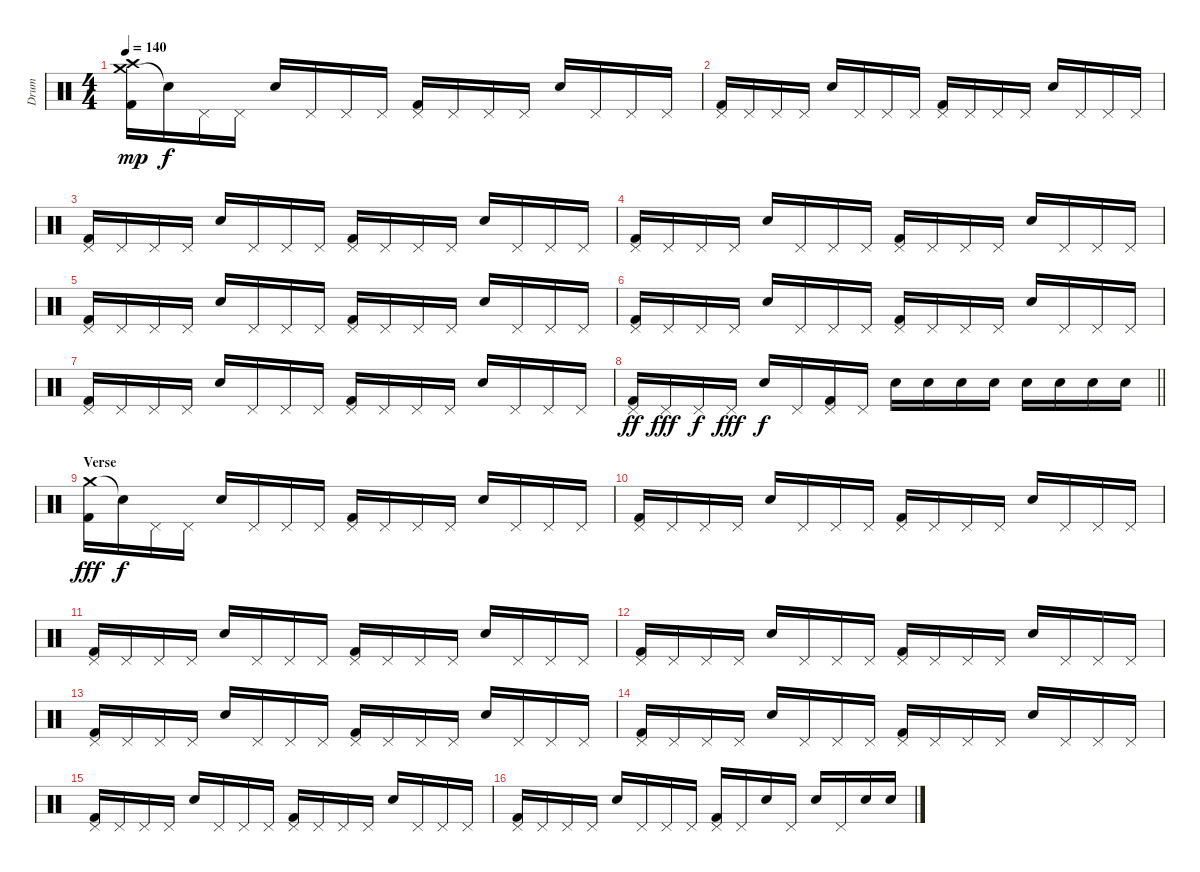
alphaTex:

\track ("Drum" "Drum") {instrument percussion}
\staff {score}
\articulation defaults
\ts (4 4)
\tempo 140
\clef neutral
\ks c
("Crash medium (hit)" "Crash high (hit)" "Kick (hit) 2").16{dy mp} "Snare (hit)"{t}.16{dy f} "Pedal Hi-Hat (hit)".16 "Pedal Hi-Hat (hit)".16 "Snare (hit) 2".16 "Pedal Hi-Hat (hit)".16 "Pedal Hi-Hat (hit)".16 "Pedal Hi-Hat (hit)".16 ("Pedal Hi-Hat (hit)" "Kick (hit) 2").16 "Pedal Hi-Hat (hit)".16 "Pedal Hi-Hat (hit)".16 "Pedal Hi-Hat (hit)".16 "Snare (hit) 2".16 "Pedal Hi-Hat (hit)".16 "Pedal Hi-Hat (hit)".16 "Pedal Hi-Hat (hit)".16 |
("Pedal Hi-Hat (hit)" "Kick (hit) 2").16 "Pedal Hi-Hat (hit)".16 "Pedal Hi-Hat (hit)".16 "Pedal Hi-Hat (hit)".16 "Snare (hit) 2".16 "Pedal Hi-Hat (hit)".16 "Pedal Hi-Hat (hit)".16 "Pedal Hi-Hat (hit)".16 ("Pedal Hi-Hat (hit)" "Kick (hit) 2").16 "Pedal Hi-Hat (hit)".16 "Pedal Hi-Hat (hit)".16 "Pedal Hi-Hat (hit)".16 "Snare (hit) 2".16 "Pedal Hi-Hat (hit)".16 "Pedal Hi-Hat (hit)".16 "Pedal Hi-Hat (hit)".16 |
("Pedal Hi-Hat (hit)" "Kick (hit) 2").16 "Pedal Hi-Hat (hit)".16 "Pedal Hi-Hat (hit)".16 "Pedal Hi-Hat (hit)".16 "Snare (hit) 2".16 "Pedal Hi-Hat (hit)".16 "Pedal Hi-Hat (hit)".16 "Pedal Hi-Hat (hit)".16 ("Pedal Hi-Hat (hit)" "Kick (hit) 2").16 "Pedal Hi-Hat (hit)".16 "Pedal Hi-Hat (hit)".16 "Pedal Hi-Hat (hit)".16 "Snare (hit) 2".16 "Pedal Hi-Hat (hit)".16 "Pedal Hi-Hat (hit)".16 "Pedal Hi-Hat (hit)".16 |
("Pedal Hi-Hat (hit)" "Kick (hit) 2").16 "Pedal Hi-Hat (hit)".16 "Pedal Hi-Hat (hit)".16 "Pedal Hi-Hat (hit)".16 "Snare (hit) 2".16 "Pedal Hi-Hat (hit)".16 "Pedal Hi-Hat (hit)".16 "Pedal Hi-Hat (hit)".16 ("Pedal Hi-Hat (hit)" "Kick (hit) 2").16 "Pedal Hi-Hat (hit)".16 "Pedal Hi-Hat (hit)".16 "Pedal Hi-Hat (hit)".16 "Snare (hit) 2".16 "Pedal Hi-Hat (hit)".16 "Pedal Hi-Hat (hit)".16 "Pedal Hi-Hat (hit)".16 |
("Pedal Hi-Hat (hit)" "Kick (hit) 2").16 "Pedal Hi-Hat (hit)".16 "Pedal Hi-Hat (hit)".16 "Pedal Hi-Hat (hit)".16 "Snare (hit) 2".16 "Pedal Hi-Hat (hit)".16 "Pedal Hi-Hat (hit)".16 "Pedal Hi-Hat (hit)".16 ("Pedal Hi-Hat (hit)" "Kick (hit) 2").16 "Pedal Hi-Hat (hit)".16 "Pedal Hi-Hat (hit)".16 "Pedal Hi-Hat (hit)".16 "Snare (hit) 2".16 "Pedal Hi-Hat (hit)".16 "Pedal Hi-Hat (hit)".16 "Pedal Hi-Hat (hit)".16 |
("Pedal Hi-Hat (hit)" "Kick (hit) 2").16 "Pedal Hi-Hat (hit)".16 "Pedal Hi-Hat (hit)".16 "Pedal Hi-Hat (hit)".16 "Snare (hit) 2".16 "Pedal Hi-Hat (hit)".16 "Pedal Hi-Hat (hit)".16 "Pedal Hi-Hat (hit)".16 ("Pedal Hi-Hat (hit)" "Kick (hit) 2").16 "Pedal Hi-Hat (hit)".16 "Pedal Hi-Hat (hit)".16 "Pedal Hi-Hat (hit)".16 "Snare (hit) 2".16 "Pedal Hi-Hat (hit)".16 "Pedal Hi-Hat (hit)".16 "Pedal Hi-Hat (hit)".16 |
("Pedal Hi-Hat (hit)" "Kick (hit) 2").16 "Pedal Hi-Hat (hit)".16 "Pedal Hi-Hat (hit)".16 "Pedal Hi-Hat (hit)".16 "Snare (hit) 2".16 "Pedal Hi-Hat (hit)".16 "Pedal Hi-Hat (hit)".16 "Pedal Hi-Hat (hit)".16 ("Pedal Hi-Hat (hit)" "Kick (hit) 2").16 "Pedal Hi-Hat (hit)".16 "Pedal Hi-Hat (hit)".16 "Pedal Hi-Hat (hit)".16 "Snare (hit) 2".16 "Pedal Hi-Hat (hit)".16 "Pedal Hi-Hat (hit)".16 "Pedal Hi-Hat (hit)".16 |
\barLineRight lightlight
("Pedal Hi-Hat (hit)" "Kick (hit) 2").16{dy ff} "Pedal Hi-Hat (hit)".16{dy fff} "Pedal Hi-Hat (hit)".16{dy f} "Pedal Hi-Hat (hit)".16{dy fff} "Snare (hit) 2".16{dy f} "Pedal Hi-Hat (hit)".16 ("Pedal Hi-Hat (hit)" "Kick (hit) 2").16 "Pedal Hi-Hat (hit)".16 "Snare (hit) 2".16 "Snare (hit) 2".16 "Snare (hit) 2".16 "Snare (hit) 2".16 "Snare (hit) 2".16 "Snare (hit) 2".16 "Snare (hit) 2".16 "Snare (hit) 2".16 |
\section ("" "Verse")
("Crash medium (hit)" "Kick (hit) 2").16{dy fff} "Snare (hit)"{t}.16{dy f} "Pedal Hi-Hat (hit)".16 "Pedal Hi-Hat (hit)".16 "Snare (hit) 2".16 "Pedal Hi-Hat (hit)".16 "Pedal Hi-Hat (hit)".16 "Pedal Hi-Hat (hit)".16 ("Pedal Hi-Hat (hit)" "Kick (hit) 2").16 "Pedal Hi-Hat (hit)".16 "Pedal Hi-Hat (hit)".16 "Pedal Hi-Hat (hit)".16 "Snare (hit) 2".16 "Pedal Hi-Hat (hit)".16 "Pedal Hi-Hat (hit)".16 "Pedal Hi-Hat (hit)".16 |
("Pedal Hi-Hat (hit)" "Kick (hit) 2").16 "Pedal Hi-Hat (hit)".16 "Pedal Hi-Hat (hit)".16 "Pedal Hi-Hat (hit)".16 "Snare (hit) 2".16 "Pedal Hi-Hat (hit)".16 "Pedal Hi-Hat (hit)".16 "Pedal Hi-Hat (hit)".16 ("Pedal Hi-Hat (hit)" "Kick (hit) 2").16 "Pedal Hi-Hat (hit)".16 "Pedal Hi-Hat (hit)".16 "Pedal Hi-Hat (hit)".16 "Snare (hit) 2".16 "Pedal Hi-Hat (hit)".16 "Pedal Hi-Hat (hit)".16 "Pedal Hi-Hat (hit)".16 |
("Pedal Hi-Hat (hit)" "Kick (hit) 2").16 "Pedal Hi-Hat (hit)".16 "Pedal Hi-Hat (hit)".16 "Pedal Hi-Hat (hit)".16 "Snare (hit) 2".16 "Pedal Hi-Hat (hit)".16 "Pedal Hi-Hat (hit)".16 "Pedal Hi-Hat (hit)".16 ("Pedal Hi-Hat (hit)" "Kick (hit) 2").16 "Pedal Hi-Hat (hit)".16 "Pedal Hi-Hat (hit)".16 "Pedal Hi-Hat (hit)".16 "Snare (hit) 2".16 "Pedal Hi-Hat (hit)".16 "Pedal Hi-Hat (hit)".16 "Pedal Hi-Hat (hit)".16 |
("Pedal Hi-Hat (hit)" "Kick (hit) 2").16 "Pedal Hi-Hat (hit)".16 "Pedal Hi-Hat (hit)".16 "Pedal Hi-Hat (hit)".16 "Snare (hit) 2".16 "Pedal Hi-Hat (hit)".16 "Pedal Hi-Hat (hit)".16 "Pedal Hi-Hat (hit)".16 ("Pedal Hi-Hat (hit)" "Kick (hit) 2").16 "Pedal Hi-Hat (hit)".16 "Pedal Hi-Hat (hit)".16 "Pedal Hi-Hat (hit)".16 "Snare (hit) 2".16 "Pedal Hi-Hat (hit)".16 "Pedal Hi-Hat (hit)".16 "Pedal Hi-Hat (hit)".16 |
("Pedal Hi-Hat (hit)" "Kick (hit) 2").16 "Pedal Hi-Hat (hit)".16 "Pedal Hi-Hat (hit)".16 "Pedal Hi-Hat (hit)".16 "Snare (hit) 2".16 "Pedal Hi-Hat (hit)".16 "Pedal Hi-Hat (hit)".16 "Pedal Hi-Hat (hit)".16 ("Pedal Hi-Hat (hit)" "Kick (hit) 2").16 "Pedal Hi-Hat (hit)".16 "Pedal Hi-Hat (hit)".16 "Pedal Hi-Hat (hit)".16 "Snare (hit) 2".16 "Pedal Hi-Hat (hit)".16 "Pedal Hi-Hat (hit)".16 "Pedal Hi-Hat (hit)".16 |
("Pedal Hi-Hat (hit)" "Kick (hit) 2").16 "Pedal Hi-Hat (hit)".16 "Pedal Hi-Hat (hit)".16 "Pedal Hi-Hat (hit)".16 "Snare (hit) 2".16 "Pedal Hi-Hat (hit)".16 "Pedal Hi-Hat (hit)".16 "Pedal Hi-Hat (hit)".16 ("Pedal Hi-Hat (hit)" "Kick (hit) 2").16 "Pedal Hi-Hat (hit)".16 "Pedal Hi-Hat (hit)".16 "Pedal Hi-Hat (hit)".16 "Snare (hit) 2".16 "Pedal Hi-Hat (hit)".16 "Pedal Hi-Hat (hit)".16 "Pedal Hi-Hat (hit)".16 |
("Pedal Hi-Hat (hit)" "Kick (hit) 2").16 "Pedal Hi-Hat (hit)".16 "Pedal Hi-Hat (hit)".16 "Pedal Hi-Hat (hit)".16 "Snare (hit) 2".16 "Pedal Hi-Hat (hit)".16 "Pedal Hi-Hat (hit)".16 "Pedal Hi-Hat (hit)".16 ("Pedal Hi-Hat (hit)" "Kick (hit) 2").16 "Pedal Hi-Hat (hit)".16 "Pedal Hi-Hat (hit)".16 "Pedal Hi-Hat (hit)".16 "Snare (hit) 2".16 "Pedal Hi-Hat (hit)".16 "Pedal Hi-Hat (hit)".16 "Pedal Hi-Hat (hit)".16 |
("Pedal Hi-Hat (hit)" "Kick (hit) 2").16 "Pedal Hi-Hat (hit)".16 "Pedal Hi-Hat (hit)".16 "Pedal Hi-Hat (hit)".16 "Snare (hit) 2".16 "Pedal Hi-Hat (hit)".16 "Pedal Hi-Hat (hit)".16 "Pedal Hi-Hat (hit)".16 ("Pedal Hi-Hat (hit)" "Kick (hit) 2").16 "Pedal Hi-Hat (hit)".16 "Snare (hit) 2".16 "Pedal Hi-Hat (hit)".16 "Snare (hit) 2".16 "Pedal Hi-Hat (hit)".16 "Snare (hit) 2".16 "Snare (hit) 2".16
